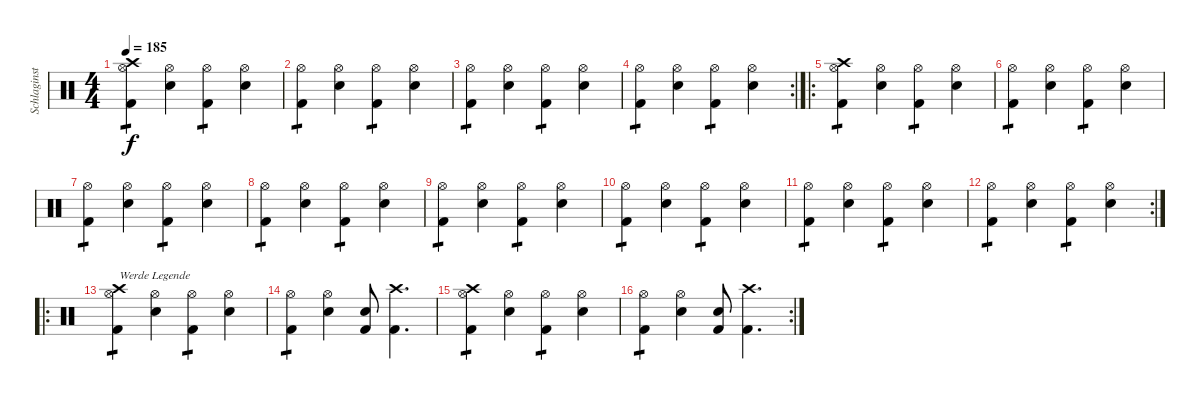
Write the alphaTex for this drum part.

\track ("Schlaginstrumente - Auswahl" "Schlaginst") {instrument percussion}
\staff {score}
\articulation defaults
\ts (4 4)
\tempo 185
\clef neutral
\ks c
("Hi-Hat (open)" "Kick (hit) 2" "Crash high (hit)").4{tp 1 dy f} ("Hi-Hat (open)" "Electric Snare (hit)").4 ("Hi-Hat (open)" "Kick (hit) 2").4{tp 1} ("Hi-Hat (open)" "Electric Snare (hit)").4 |
("Hi-Hat (open)" "Kick (hit) 2").4{tp 1} ("Hi-Hat (open)" "Electric Snare (hit)").4 ("Hi-Hat (open)" "Kick (hit) 2").4{tp 1} ("Hi-Hat (open)" "Electric Snare (hit)").4 |
("Hi-Hat (open)" "Kick (hit) 2").4{tp 1} ("Hi-Hat (open)" "Electric Snare (hit)").4 ("Hi-Hat (open)" "Kick (hit) 2").4{tp 1} ("Hi-Hat (open)" "Electric Snare (hit)").4 |
\rc 2
("Hi-Hat (open)" "Kick (hit) 2").4{tp 1} ("Hi-Hat (open)" "Electric Snare (hit)").4 ("Hi-Hat (open)" "Kick (hit) 2").4{tp 1} ("Hi-Hat (open)" "Electric Snare (hit)").4 |
\ro
("Hi-Hat (open)" "Kick (hit) 2" "Crash high (hit)").4{tp 1} ("Hi-Hat (open)" "Electric Snare (hit)").4 ("Hi-Hat (open)" "Kick (hit) 2").4{tp 1} ("Hi-Hat (open)" "Electric Snare (hit)").4 |
("Hi-Hat (open)" "Kick (hit) 2").4{tp 1} ("Hi-Hat (open)" "Electric Snare (hit)").4 ("Hi-Hat (open)" "Kick (hit) 2").4{tp 1} ("Hi-Hat (open)" "Electric Snare (hit)").4 |
("Hi-Hat (open)" "Kick (hit) 2").4{tp 1} ("Hi-Hat (open)" "Electric Snare (hit)").4 ("Hi-Hat (open)" "Kick (hit) 2").4{tp 1} ("Hi-Hat (open)" "Electric Snare (hit)").4 |
("Hi-Hat (open)" "Kick (hit) 2").4{tp 1} ("Hi-Hat (open)" "Electric Snare (hit)").4 ("Hi-Hat (open)" "Kick (hit) 2").4{tp 1} ("Hi-Hat (open)" "Electric Snare (hit)").4 |
("Hi-Hat (open)" "Kick (hit) 2").4{tp 1} ("Hi-Hat (open)" "Electric Snare (hit)").4 ("Hi-Hat (open)" "Kick (hit) 2").4{tp 1} ("Hi-Hat (open)" "Electric Snare (hit)").4 |
("Hi-Hat (open)" "Kick (hit) 2").4{tp 1} ("Hi-Hat (open)" "Electric Snare (hit)").4 ("Hi-Hat (open)" "Kick (hit) 2").4{tp 1} ("Hi-Hat (open)" "Electric Snare (hit)").4 |
("Hi-Hat (open)" "Kick (hit) 2").4{tp 1} ("Hi-Hat (open)" "Electric Snare (hit)").4 ("Hi-Hat (open)" "Kick (hit) 2").4{tp 1} ("Hi-Hat (open)" "Electric Snare (hit)").4 |
\rc 2
("Hi-Hat (open)" "Kick (hit) 2").4{tp 1} ("Hi-Hat (open)" "Electric Snare (hit)").4 ("Hi-Hat (open)" "Kick (hit) 2").4{tp 1} ("Hi-Hat (open)" "Electric Snare (hit)").4 |
\ro
("Hi-Hat (open)" "Kick (hit) 2" "Crash high (hit)").4{txt "Werde Legende" tp 1} ("Hi-Hat (open)" "Electric Snare (hit)").4 ("Hi-Hat (open)" "Kick (hit) 2").4{tp 1} ("Hi-Hat (open)" "Electric Snare (hit)").4 |
("Hi-Hat (open)" "Kick (hit) 2").4{tp 1} ("Hi-Hat (open)" "Electric Snare (hit)").4 ("Electric Snare (hit)" "Kick (hit) 2").8 ("Crash high (hit)" "Kick (hit) 2").4{d} |
("Hi-Hat (open)" "Kick (hit) 2" "Crash high (hit)").4{tp 1} ("Hi-Hat (open)" "Electric Snare (hit)").4 ("Hi-Hat (open)" "Kick (hit) 2").4{tp 1} ("Hi-Hat (open)" "Electric Snare (hit)").4 |
\rc 2
("Hi-Hat (open)" "Kick (hit) 2").4{tp 1} ("Hi-Hat (open)" "Electric Snare (hit)").4 ("Electric Snare (hit)" "Kick (hit) 2").8 ("Crash high (hit)" "Kick (hit) 2").4{d}
